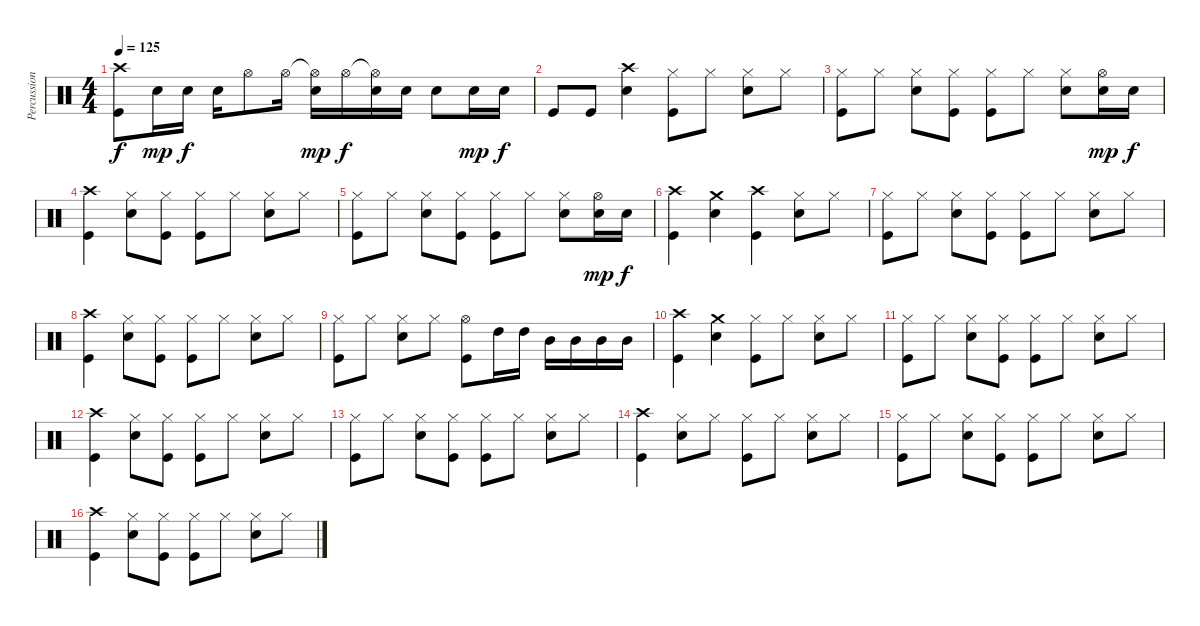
\track ("Percussion" "Percussion") {instrument percussion}
\staff {score}
\articulation defaults
\ts (4 4)
\tempo 125
\clef neutral
\ks c
("Crash high (hit)" "Kick (hit)").8{dy f} "Electric Snare (hit)".16{dy mp} "Electric Snare (hit)".16{dy f} "Electric Snare (hit)".16 "Hi-Hat (open)".8 "Hi-Hat (open)".16 ("Hi-Hat (open)"{t} "Electric Snare (hit)").16{dy mp} "Hi-Hat (open)".16{dy f} ("Hi-Hat (open)"{t} "Electric Snare (hit)").16 "Electric Snare (hit)".16 "Electric Snare (hit)".8 "Electric Snare (hit)".16{dy mp} "Electric Snare (hit)".16{dy f} |
"Kick (hit)".8 "Kick (hit)".8 ("Crash high (hit)" "Electric Snare (hit)").4 ("Hi-Hat (closed)" "Kick (hit)").8 "Hi-Hat (closed)".8 ("Hi-Hat (closed)" "Electric Snare (hit)").8 "Hi-Hat (closed)".8 |
("Hi-Hat (closed)" "Kick (hit)").8 "Hi-Hat (closed)".8 ("Hi-Hat (closed)" "Electric Snare (hit)").8 ("Hi-Hat (closed)" "Kick (hit)").8 ("Hi-Hat (closed)" "Kick (hit)").8 "Hi-Hat (closed)".8 ("Hi-Hat (closed)" "Electric Snare (hit)").8 ("Hi-Hat (open)" "Electric Snare (hit)").16{dy mp} "Electric Snare (hit)".16{dy f} |
("Crash high (hit)" "Kick (hit)").4 ("Hi-Hat (closed)" "Electric Snare (hit)").8 ("Hi-Hat (closed)" "Kick (hit)").8 ("Hi-Hat (closed)" "Kick (hit)").8 "Hi-Hat (closed)".8 ("Hi-Hat (closed)" "Electric Snare (hit)").8 "Hi-Hat (closed)".8 |
("Hi-Hat (closed)" "Kick (hit)").8 "Hi-Hat (closed)".8 ("Hi-Hat (closed)" "Electric Snare (hit)").8 ("Hi-Hat (closed)" "Kick (hit)").8 ("Hi-Hat (closed)" "Kick (hit)").8 "Hi-Hat (closed)".8 ("Hi-Hat (closed)" "Electric Snare (hit)").8 ("Hi-Hat (open)" "Electric Snare (hit)").16{dy mp} "Electric Snare (hit)".16{dy f} |
("Crash high (hit)" "Kick (hit)").4 ("Crash medium (hit)" "Electric Snare (hit)").4 ("Crash high (hit)" "Kick (hit)").4 ("Hi-Hat (closed)" "Electric Snare (hit)").8 "Hi-Hat (closed)".8 |
("Hi-Hat (closed)" "Kick (hit)").8 "Hi-Hat (closed)".8 ("Hi-Hat (closed)" "Electric Snare (hit)").8 ("Hi-Hat (closed)" "Kick (hit)").8 ("Hi-Hat (closed)" "Kick (hit)").8 "Hi-Hat (closed)".8 ("Hi-Hat (closed)" "Electric Snare (hit)").8 "Hi-Hat (closed)".8 |
("Crash high (hit)" "Kick (hit)").4 ("Hi-Hat (closed)" "Electric Snare (hit)").8 ("Hi-Hat (closed)" "Kick (hit)").8 ("Hi-Hat (closed)" "Kick (hit)").8 "Hi-Hat (closed)".8 ("Hi-Hat (closed)" "Electric Snare (hit)").8 "Hi-Hat (closed)".8 |
("Hi-Hat (closed)" "Kick (hit)").8 "Hi-Hat (closed)".8 ("Hi-Hat (closed)" "Electric Snare (hit)").8 "Hi-Hat (closed)".8 ("Hi-Hat (open)" "Kick (hit)").8 "High Tom (hit)".16 "High Tom (hit)".16 "Mid Tom (hit)".16 "Mid Tom (hit)".16 "Mid Tom (hit)".16 "Mid Tom (hit)".16 |
("Crash high (hit)" "Kick (hit)").4 ("Crash medium (hit)" "Electric Snare (hit)").4 ("Hi-Hat (closed)" "Kick (hit)").8 "Hi-Hat (closed)".8 ("Hi-Hat (closed)" "Electric Snare (hit)").8 "Hi-Hat (closed)".8 |
("Hi-Hat (closed)" "Kick (hit)").8 "Hi-Hat (closed)".8 ("Hi-Hat (closed)" "Electric Snare (hit)").8 ("Hi-Hat (closed)" "Kick (hit)").8 ("Hi-Hat (closed)" "Kick (hit)").8 "Hi-Hat (closed)".8 ("Hi-Hat (closed)" "Electric Snare (hit)").8 "Hi-Hat (closed)".8 |
("Crash high (hit)" "Kick (hit)").4 ("Hi-Hat (closed)" "Electric Snare (hit)").8 ("Hi-Hat (closed)" "Kick (hit)").8 ("Hi-Hat (closed)" "Kick (hit)").8 "Hi-Hat (closed)".8 ("Hi-Hat (closed)" "Electric Snare (hit)").8 "Hi-Hat (closed)".8 |
("Hi-Hat (closed)" "Kick (hit)").8 "Hi-Hat (closed)".8 ("Hi-Hat (closed)" "Electric Snare (hit)").8 ("Hi-Hat (closed)" "Kick (hit)").8 ("Hi-Hat (closed)" "Kick (hit)").8 "Hi-Hat (closed)".8 ("Hi-Hat (closed)" "Electric Snare (hit)").8 "Hi-Hat (closed)".8 |
("Crash high (hit)" "Kick (hit)").4 ("Hi-Hat (closed)" "Electric Snare (hit)").8 "Hi-Hat (closed)".8 ("Hi-Hat (closed)" "Kick (hit)").8 "Hi-Hat (closed)".8 ("Hi-Hat (closed)" "Electric Snare (hit)").8 "Hi-Hat (closed)".8 |
("Hi-Hat (closed)" "Kick (hit)").8 "Hi-Hat (closed)".8 ("Hi-Hat (closed)" "Electric Snare (hit)").8 ("Hi-Hat (closed)" "Kick (hit)").8 ("Hi-Hat (closed)" "Kick (hit)").8 "Hi-Hat (closed)".8 ("Hi-Hat (closed)" "Electric Snare (hit)").8 "Hi-Hat (closed)".8 |
("Crash high (hit)" "Kick (hit)").4 ("Hi-Hat (closed)" "Electric Snare (hit)").8 ("Hi-Hat (closed)" "Kick (hit)").8 ("Hi-Hat (closed)" "Kick (hit)").8 "Hi-Hat (closed)".8 ("Hi-Hat (closed)" "Electric Snare (hit)").8 "Hi-Hat (closed)".8
